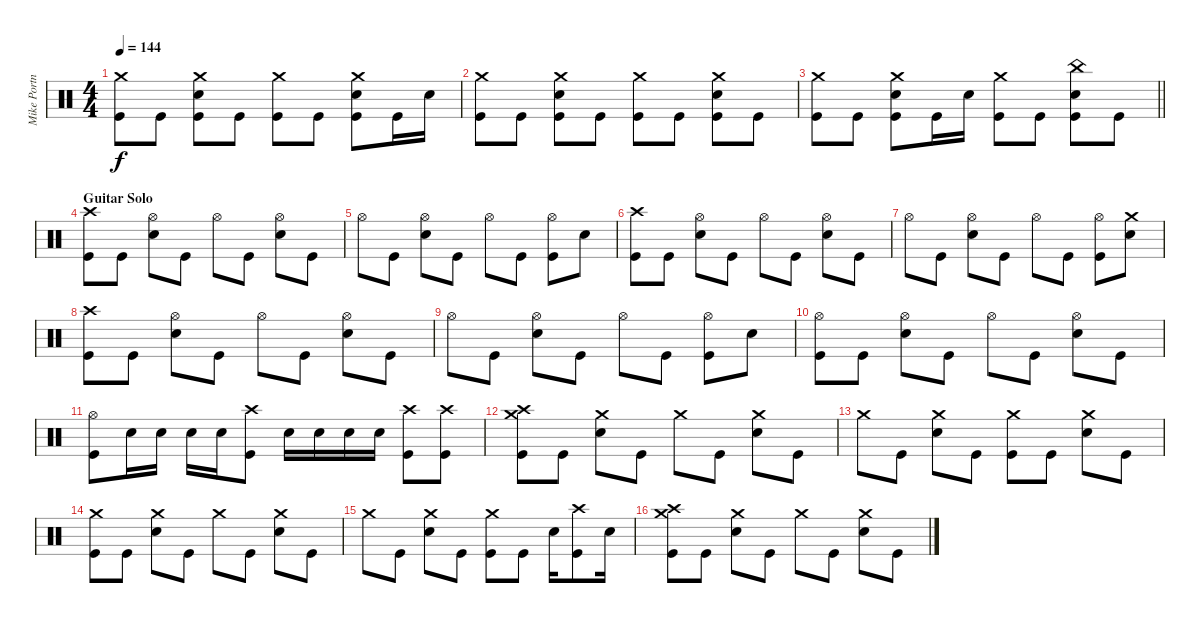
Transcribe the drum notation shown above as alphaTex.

\track ("Mike Portnoy" "Mike Portn") {instrument percussion}
\staff {score}
\articulation defaults
\ts (4 4)
\tempo 144
\clef neutral
\ks c
("Crash medium (hit)" "Kick (hit)").8{dy f} "Kick (hit)".8 ("Crash medium (hit)" "Electric Snare (hit)" "Kick (hit)").8 "Kick (hit)".8 ("Crash medium (hit)" "Kick (hit)").8 "Kick (hit)".8 ("Crash medium (hit)" "Electric Snare (hit)" "Kick (hit)").8 "Kick (hit)".16 "Electric Snare (hit)".16 |
("Crash medium (hit)" "Kick (hit)").8 "Kick (hit)".8 ("Crash medium (hit)" "Electric Snare (hit)" "Kick (hit)").8 "Kick (hit)".8 ("Crash medium (hit)" "Kick (hit)").8 "Kick (hit)".8 ("Crash medium (hit)" "Electric Snare (hit)" "Kick (hit)").8 "Kick (hit)".8 |
\barLineRight lightlight
("Crash medium (hit)" "Kick (hit)").8 "Kick (hit)".8 ("Crash medium (hit)" "Electric Snare (hit)" "Kick (hit)").8 "Kick (hit)".16 "Electric Snare (hit)".16 ("Crash medium (hit)" "Kick (hit)").8 "Kick (hit)".8 ("China (hit)" "Electric Snare (hit)" "Kick (hit)").8 "Kick (hit)".8 |
\section ("" "Guitar Solo ")
("Crash high (hit)" "Kick (hit)").8 "Kick (hit)".8 ("Hi-Hat (open)" "Electric Snare (hit)").8 "Kick (hit)".8 "Hi-Hat (open)".8 "Kick (hit)".8 ("Hi-Hat (open)" "Electric Snare (hit)").8 "Kick (hit)".8 |
"Hi-Hat (open)".8 "Kick (hit)".8 ("Hi-Hat (open)" "Electric Snare (hit)").8 "Kick (hit)".8 "Hi-Hat (open)".8 "Kick (hit)".8 ("Hi-Hat (open)" "Kick (hit)").8 "Electric Snare (hit)".8 |
("Crash high (hit)" "Kick (hit)").8 "Kick (hit)".8 ("Hi-Hat (open)" "Electric Snare (hit)").8 "Kick (hit)".8 "Hi-Hat (open)".8 "Kick (hit)".8 ("Hi-Hat (open)" "Electric Snare (hit)").8 "Kick (hit)".8 |
"Hi-Hat (open)".8 "Kick (hit)".8 ("Hi-Hat (open)" "Electric Snare (hit)").8 "Kick (hit)".8 "Hi-Hat (open)".8 "Kick (hit)".8 ("Hi-Hat (open)" "Kick (hit)").8 ("Crash medium (hit)" "Electric Snare (hit)").8 |
("Crash high (hit)" "Kick (hit)").8 "Kick (hit)".8 ("Hi-Hat (open)" "Electric Snare (hit)").8 "Kick (hit)".8 "Hi-Hat (open)".8 "Kick (hit)".8 ("Hi-Hat (open)" "Electric Snare (hit)").8 "Kick (hit)".8 |
"Hi-Hat (open)".8 "Kick (hit)".8 ("Hi-Hat (open)" "Electric Snare (hit)").8 "Kick (hit)".8 "Hi-Hat (open)".8 "Kick (hit)".8 ("Hi-Hat (open)" "Kick (hit)").8 "Electric Snare (hit)".8 |
("Hi-Hat (open)" "Kick (hit)").8 "Kick (hit)".8 ("Hi-Hat (open)" "Electric Snare (hit)").8 "Kick (hit)".8 "Hi-Hat (open)".8 "Kick (hit)".8 ("Hi-Hat (open)" "Electric Snare (hit)").8 "Kick (hit)".8 |
("Hi-Hat (open)" "Kick (hit)").8 "Electric Snare (hit)".16 "Electric Snare (hit)".16 "Electric Snare (hit)".16 "Electric Snare (hit)".16 ("Crash high (hit)" "Kick (hit)").8 "Electric Snare (hit)".16 "Electric Snare (hit)".16 "Electric Snare (hit)".16 "Electric Snare (hit)".16 ("Crash high (hit)" "Kick (hit)").8 ("Crash high (hit)" "Kick (hit)").8 |
("Crash high (hit)" "Crash medium (hit)" "Kick (hit)").8 "Kick (hit)".8 ("Crash medium (hit)" "Electric Snare (hit)").8 "Kick (hit)".8 "Crash medium (hit)".8 "Kick (hit)".8 ("Crash medium (hit)" "Electric Snare (hit)").8 "Kick (hit)".8 |
"Crash medium (hit)".8 "Kick (hit)".8 ("Crash medium (hit)" "Electric Snare (hit)").8 "Kick (hit)".8 ("Crash medium (hit)" "Kick (hit)").8 "Kick (hit)".8 ("Crash medium (hit)" "Electric Snare (hit)").8 "Kick (hit)".8 |
("Crash medium (hit)" "Kick (hit)").8 "Kick (hit)".8 ("Crash medium (hit)" "Electric Snare (hit)").8 "Kick (hit)".8 "Crash medium (hit)".8 "Kick (hit)".8 ("Crash medium (hit)" "Electric Snare (hit)").8 "Kick (hit)".8 |
"Crash medium (hit)".8 "Kick (hit)".8 ("Crash medium (hit)" "Electric Snare (hit)").8 "Kick (hit)".8 ("Crash medium (hit)" "Kick (hit)").8 "Kick (hit)".8 "Electric Snare (hit)".16 ("Crash high (hit)" "Kick (hit)").8 "Electric Snare (hit)".16 |
("Crash high (hit)" "Crash medium (hit)" "Kick (hit)").8 "Kick (hit)".8 ("Crash medium (hit)" "Electric Snare (hit)").8 "Kick (hit)".8 "Crash medium (hit)".8 "Kick (hit)".8 ("Crash medium (hit)" "Electric Snare (hit)").8 "Kick (hit)".8
